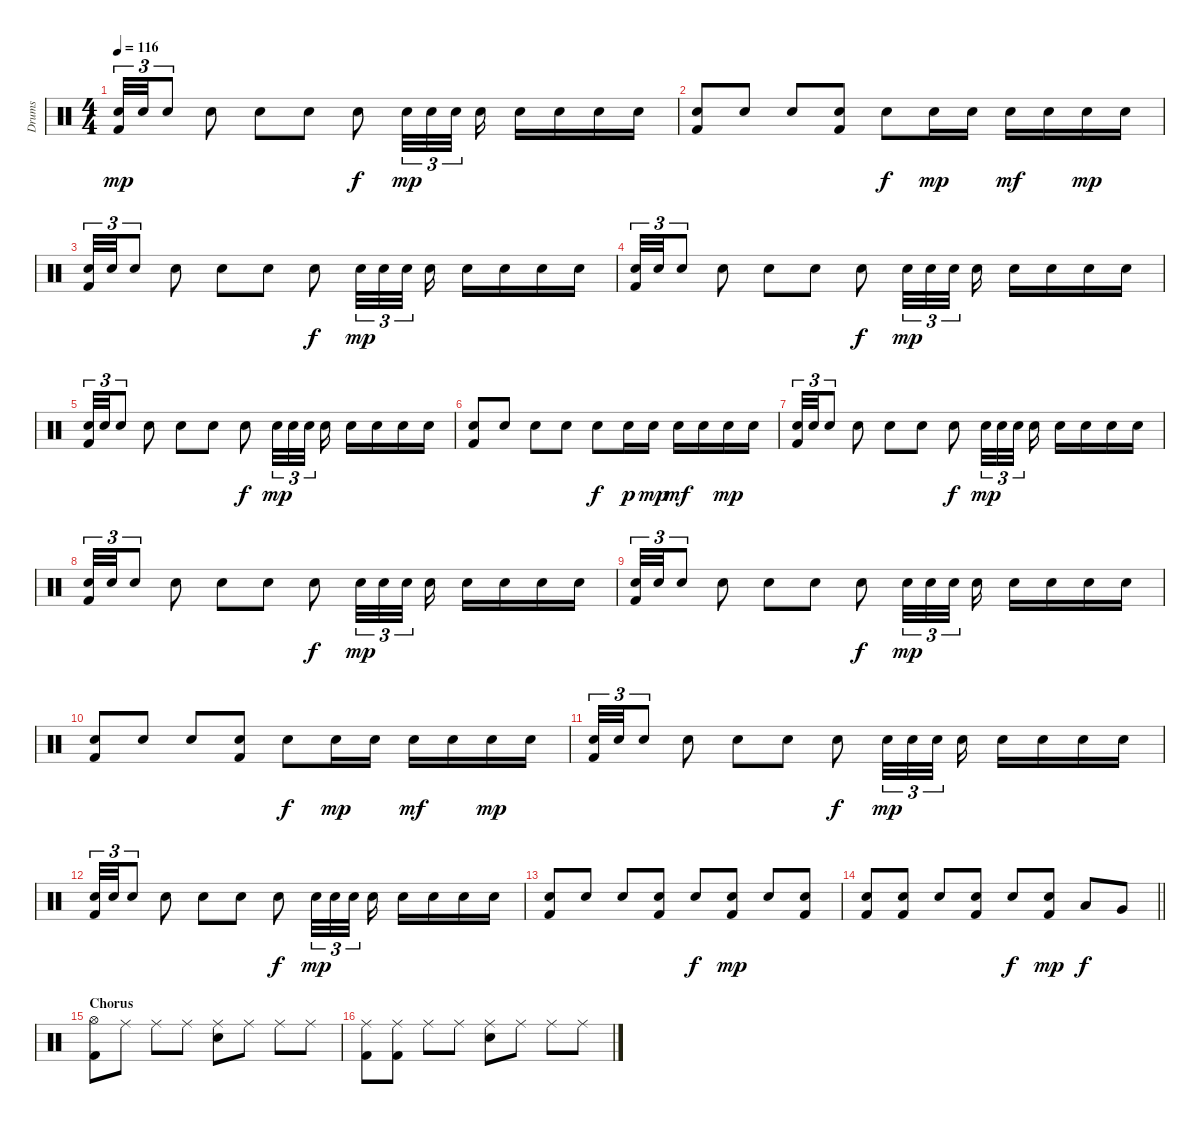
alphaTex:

\track ("Drums" "Drums") {instrument percussion}
\staff {score}
\articulation defaults
\ts (4 4)
\tempo 116
\clef neutral
\ks c
("Kick (hit) 2" "Snare (hit) 2").32{tu (3 2) dy mp} "Snare (hit) 2".32{tu (3 2)} "Snare (hit) 2".8{tu (3 2)} "Snare (hit) 2".8 "Snare (hit) 2".8 "Snare (hit) 2".8 "Snare (hit) 2".8{dy f} "Snare (hit) 2".32{tu (3 2) dy mp} "Snare (hit) 2".32{tu (3 2)} "Snare (hit) 2".32{tu (3 2)} "Snare (hit) 2".16 "Snare (hit) 2".16 "Snare (hit) 2".16 "Snare (hit) 2".16 "Snare (hit) 2".16 |
("Kick (hit) 2" "Snare (hit) 2").8 "Snare (hit) 2".8 "Snare (hit) 2".8 ("Kick (hit) 2" "Snare (hit) 2").8 "Snare (hit) 2".8{dy f} "Snare (hit) 2".16{dy mp} "Snare (hit) 2".16 "Snare (hit) 2".16{dy mf} "Snare (hit) 2".16 "Snare (hit) 2".16{dy mp} "Snare (hit) 2".16 |
("Kick (hit) 2" "Snare (hit) 2").32{tu (3 2)} "Snare (hit) 2".32{tu (3 2)} "Snare (hit) 2".8{tu (3 2)} "Snare (hit) 2".8 "Snare (hit) 2".8 "Snare (hit) 2".8 "Snare (hit) 2".8{dy f} "Snare (hit) 2".32{tu (3 2) dy mp} "Snare (hit) 2".32{tu (3 2)} "Snare (hit) 2".32{tu (3 2)} "Snare (hit) 2".16 "Snare (hit) 2".16 "Snare (hit) 2".16 "Snare (hit) 2".16 "Snare (hit) 2".16 |
("Kick (hit) 2" "Snare (hit) 2").32{tu (3 2)} "Snare (hit) 2".32{tu (3 2)} "Snare (hit) 2".8{tu (3 2)} "Snare (hit) 2".8 "Snare (hit) 2".8 "Snare (hit) 2".8 "Snare (hit) 2".8{dy f} "Snare (hit) 2".32{tu (3 2) dy mp} "Snare (hit) 2".32{tu (3 2)} "Snare (hit) 2".32{tu (3 2)} "Snare (hit) 2".16 "Snare (hit) 2".16 "Snare (hit) 2".16 "Snare (hit) 2".16 "Snare (hit) 2".16 |
("Kick (hit) 2" "Snare (hit) 2").32{tu (3 2)} "Snare (hit) 2".32{tu (3 2)} "Snare (hit) 2".8{tu (3 2)} "Snare (hit) 2".8 "Snare (hit) 2".8 "Snare (hit) 2".8 "Snare (hit) 2".8{dy f} "Snare (hit) 2".32{tu (3 2) dy mp} "Snare (hit) 2".32{tu (3 2)} "Snare (hit) 2".32{tu (3 2)} "Snare (hit) 2".16 "Snare (hit) 2".16 "Snare (hit) 2".16 "Snare (hit) 2".16 "Snare (hit) 2".16 |
("Kick (hit) 2" "Snare (hit) 2").8 "Snare (hit) 2".8 "Snare (hit) 2".8 "Snare (hit) 2".8 "Snare (hit) 2".8{dy f} "Snare (hit) 2".16{dy p} "Snare (hit) 2".16{dy mp} "Snare (hit) 2".16{dy mf} "Snare (hit) 2".16 "Snare (hit) 2".16{dy mp} "Snare (hit) 2".16 |
("Kick (hit) 2" "Snare (hit) 2").32{tu (3 2)} "Snare (hit) 2".32{tu (3 2)} "Snare (hit) 2".8{tu (3 2)} "Snare (hit) 2".8 "Snare (hit) 2".8 "Snare (hit) 2".8 "Snare (hit) 2".8{dy f} "Snare (hit) 2".32{tu (3 2) dy mp} "Snare (hit) 2".32{tu (3 2)} "Snare (hit) 2".32{tu (3 2)} "Snare (hit) 2".16 "Snare (hit) 2".16 "Snare (hit) 2".16 "Snare (hit) 2".16 "Snare (hit) 2".16 |
("Kick (hit) 2" "Snare (hit) 2").32{tu (3 2)} "Snare (hit) 2".32{tu (3 2)} "Snare (hit) 2".8{tu (3 2)} "Snare (hit) 2".8 "Snare (hit) 2".8 "Snare (hit) 2".8 "Snare (hit) 2".8{dy f} "Snare (hit) 2".32{tu (3 2) dy mp} "Snare (hit) 2".32{tu (3 2)} "Snare (hit) 2".32{tu (3 2)} "Snare (hit) 2".16 "Snare (hit) 2".16 "Snare (hit) 2".16 "Snare (hit) 2".16 "Snare (hit) 2".16 |
("Kick (hit) 2" "Snare (hit) 2").32{tu (3 2)} "Snare (hit) 2".32{tu (3 2)} "Snare (hit) 2".8{tu (3 2)} "Snare (hit) 2".8 "Snare (hit) 2".8 "Snare (hit) 2".8 "Snare (hit) 2".8{dy f} "Snare (hit) 2".32{tu (3 2) dy mp} "Snare (hit) 2".32{tu (3 2)} "Snare (hit) 2".32{tu (3 2)} "Snare (hit) 2".16 "Snare (hit) 2".16 "Snare (hit) 2".16 "Snare (hit) 2".16 "Snare (hit) 2".16 |
("Kick (hit) 2" "Snare (hit) 2").8 "Snare (hit) 2".8 "Snare (hit) 2".8 ("Kick (hit) 2" "Snare (hit) 2").8 "Snare (hit) 2".8{dy f} "Snare (hit) 2".16{dy mp} "Snare (hit) 2".16 "Snare (hit) 2".16{dy mf} "Snare (hit) 2".16 "Snare (hit) 2".16{dy mp} "Snare (hit) 2".16 |
("Kick (hit) 2" "Snare (hit) 2").32{tu (3 2)} "Snare (hit) 2".32{tu (3 2)} "Snare (hit) 2".8{tu (3 2)} "Snare (hit) 2".8 "Snare (hit) 2".8 "Snare (hit) 2".8 "Snare (hit) 2".8{dy f} "Snare (hit) 2".32{tu (3 2) dy mp} "Snare (hit) 2".32{tu (3 2)} "Snare (hit) 2".32{tu (3 2)} "Snare (hit) 2".16 "Snare (hit) 2".16 "Snare (hit) 2".16 "Snare (hit) 2".16 "Snare (hit) 2".16 |
("Kick (hit) 2" "Snare (hit) 2").32{tu (3 2)} "Snare (hit) 2".32{tu (3 2)} "Snare (hit) 2".8{tu (3 2)} "Snare (hit) 2".8 "Snare (hit) 2".8 "Snare (hit) 2".8 "Snare (hit) 2".8{dy f} "Snare (hit) 2".32{tu (3 2) dy mp} "Snare (hit) 2".32{tu (3 2)} "Snare (hit) 2".32{tu (3 2)} "Snare (hit) 2".16 "Snare (hit) 2".16 "Snare (hit) 2".16 "Snare (hit) 2".16 "Snare (hit) 2".16 |
("Kick (hit) 2" "Snare (hit) 2").8 "Snare (hit) 2".8 "Snare (hit) 2".8 ("Kick (hit) 2" "Snare (hit) 2").8 "Snare (hit) 2".8{dy f} ("Kick (hit) 2" "Snare (hit) 2").8{dy mp} "Snare (hit) 2".8 ("Kick (hit) 2" "Snare (hit) 2").8 |
\barLineRight lightlight
("Kick (hit) 2" "Snare (hit) 2").8 ("Kick (hit) 2" "Snare (hit) 2").8 "Snare (hit) 2".8 ("Kick (hit) 2" "Snare (hit) 2").8 "Snare (hit) 2".8{dy f} ("Kick (hit) 2" "Snare (hit) 2").8{dy mp} "Low Tom (hit)".8{dy f} "Very Low Tom (hit)".8 |
\section ("" "Chorus")
("Kick (hit) 2" "Hi-Hat (open)").8 "Ride (middle)".8 "Ride (middle)".8 "Ride (middle)".8 ("Snare (hit) 2" "Ride (middle)").8 "Ride (middle)".8 "Ride (middle)".8 "Ride (middle)".8 |
("Kick (hit) 2" "Ride (middle)").8 ("Kick (hit) 2" "Ride (middle)").8 "Ride (middle)".8 "Ride (middle)".8 ("Snare (hit) 2" "Ride (middle)").8 "Ride (middle)".8 "Ride (middle)".8 "Ride (middle)".8
